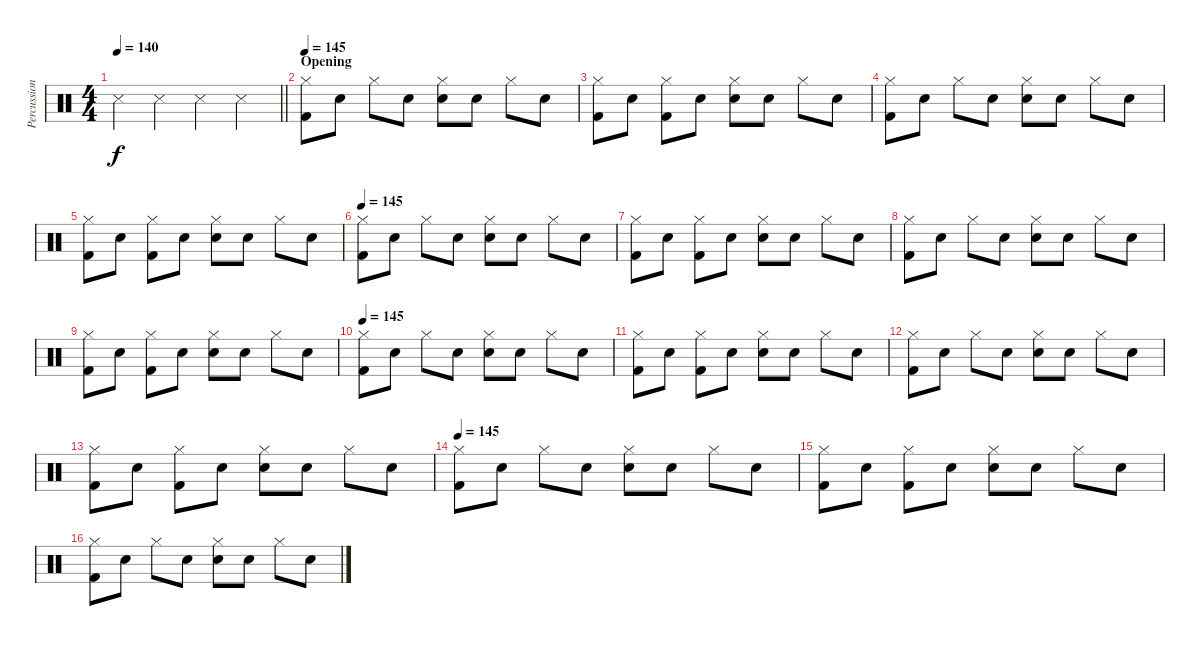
\track ("Percussion" "Percussion") {instrument percussion}
\staff {score}
\articulation defaults
\ts (4 4)
\tempo 140
\tempo 75
\tempo 140
\clef neutral
\barLineRight lightlight
\ks c "Snare (side stick) 3".4{dy f} "Snare (side stick) 3".4 "Snare (side stick) 3".4 "Snare (side stick) 3".4
|
\section ("" "Opening")
\tempo 145
("Hi-Hat (closed)" "Kick (hit) 2").8 "Snare (hit)"{x}.8 "Hi-Hat (closed)".8 "Snare (hit)"{x}.8 ("Hi-Hat (closed)" "Electric Snare (hit)").8 "Snare (hit)"{x}.8 "Hi-Hat (closed)".8 "Snare (hit)"{x}.8 |
("Hi-Hat (closed)" "Kick (hit) 2").8 "Snare (hit)"{x}.8 ("Hi-Hat (closed)" "Kick (hit) 2").8 "Snare (hit)"{x}.8 ("Hi-Hat (closed)" "Electric Snare (hit)").8 "Snare (hit)"{x}.8 "Hi-Hat (closed)".8 "Snare (hit)"{x}.8 |
("Hi-Hat (closed)" "Kick (hit) 2").8 "Snare (hit)"{x}.8 "Hi-Hat (closed)".8 "Snare (hit)"{x}.8 ("Hi-Hat (closed)" "Electric Snare (hit)").8 "Snare (hit)"{x}.8 "Hi-Hat (closed)".8 "Snare (hit)"{x}.8 |
("Hi-Hat (closed)" "Kick (hit) 2").8 "Snare (hit)"{x}.8 ("Hi-Hat (closed)" "Kick (hit) 2").8 "Snare (hit)"{x}.8 ("Hi-Hat (closed)" "Electric Snare (hit)").8 "Snare (hit)"{x}.8 "Hi-Hat (closed)".8 "Snare (hit)"{x}.8 |
\tempo 145
("Hi-Hat (closed)" "Kick (hit) 2").8 "Snare (hit)"{x}.8 "Hi-Hat (closed)".8 "Snare (hit)"{x}.8 ("Hi-Hat (closed)" "Electric Snare (hit)").8 "Snare (hit)"{x}.8 "Hi-Hat (closed)".8 "Snare (hit)"{x}.8 |
("Hi-Hat (closed)" "Kick (hit) 2").8 "Snare (hit)"{x}.8 ("Hi-Hat (closed)" "Kick (hit) 2").8 "Snare (hit)"{x}.8 ("Hi-Hat (closed)" "Electric Snare (hit)").8 "Snare (hit)"{x}.8 "Hi-Hat (closed)".8 "Snare (hit)"{x}.8 |
("Hi-Hat (closed)" "Kick (hit) 2").8 "Snare (hit)"{x}.8 "Hi-Hat (closed)".8 "Snare (hit)"{x}.8 ("Hi-Hat (closed)" "Electric Snare (hit)").8 "Snare (hit)"{x}.8 "Hi-Hat (closed)".8 "Snare (hit)"{x}.8 |
("Hi-Hat (closed)" "Kick (hit) 2").8 "Snare (hit)"{x}.8 ("Hi-Hat (closed)" "Kick (hit) 2").8 "Snare (hit)"{x}.8 ("Hi-Hat (closed)" "Electric Snare (hit)").8 "Snare (hit)"{x}.8 "Hi-Hat (closed)".8 "Snare (hit)"{x}.8 |
\tempo 145
("Hi-Hat (closed)" "Kick (hit) 2").8 "Snare (hit)"{x}.8 "Hi-Hat (closed)".8 "Snare (hit)"{x}.8 ("Hi-Hat (closed)" "Electric Snare (hit)").8 "Snare (hit)"{x}.8 "Hi-Hat (closed)".8 "Snare (hit)"{x}.8 |
("Hi-Hat (closed)" "Kick (hit) 2").8 "Snare (hit)"{x}.8 ("Hi-Hat (closed)" "Kick (hit) 2").8 "Snare (hit)"{x}.8 ("Hi-Hat (closed)" "Electric Snare (hit)").8 "Snare (hit)"{x}.8 "Hi-Hat (closed)".8 "Snare (hit)"{x}.8 |
("Hi-Hat (closed)" "Kick (hit) 2").8 "Snare (hit)"{x}.8 "Hi-Hat (closed)".8 "Snare (hit)"{x}.8 ("Hi-Hat (closed)" "Electric Snare (hit)").8 "Snare (hit)"{x}.8 "Hi-Hat (closed)".8 "Snare (hit)"{x}.8 |
("Hi-Hat (closed)" "Kick (hit) 2").8 "Snare (hit)"{x}.8 ("Hi-Hat (closed)" "Kick (hit) 2").8 "Snare (hit)"{x}.8 ("Hi-Hat (closed)" "Electric Snare (hit)").8 "Snare (hit)"{x}.8 "Hi-Hat (closed)".8 "Snare (hit)"{x}.8 |
\tempo 145
("Hi-Hat (closed)" "Kick (hit) 2").8 "Snare (hit)"{x}.8 "Hi-Hat (closed)".8 "Snare (hit)"{x}.8 ("Hi-Hat (closed)" "Electric Snare (hit)").8 "Snare (hit)"{x}.8 "Hi-Hat (closed)".8 "Snare (hit)"{x}.8 |
("Hi-Hat (closed)" "Kick (hit) 2").8 "Snare (hit)"{x}.8 ("Hi-Hat (closed)" "Kick (hit) 2").8 "Snare (hit)"{x}.8 ("Hi-Hat (closed)" "Electric Snare (hit)").8 "Snare (hit)"{x}.8 "Hi-Hat (closed)".8 "Snare (hit)"{x}.8 |
("Hi-Hat (closed)" "Kick (hit) 2").8 "Snare (hit)"{x}.8 "Hi-Hat (closed)".8 "Snare (hit)"{x}.8 ("Hi-Hat (closed)" "Electric Snare (hit)").8 "Snare (hit)"{x}.8 "Hi-Hat (closed)".8 "Snare (hit)"{x}.8
